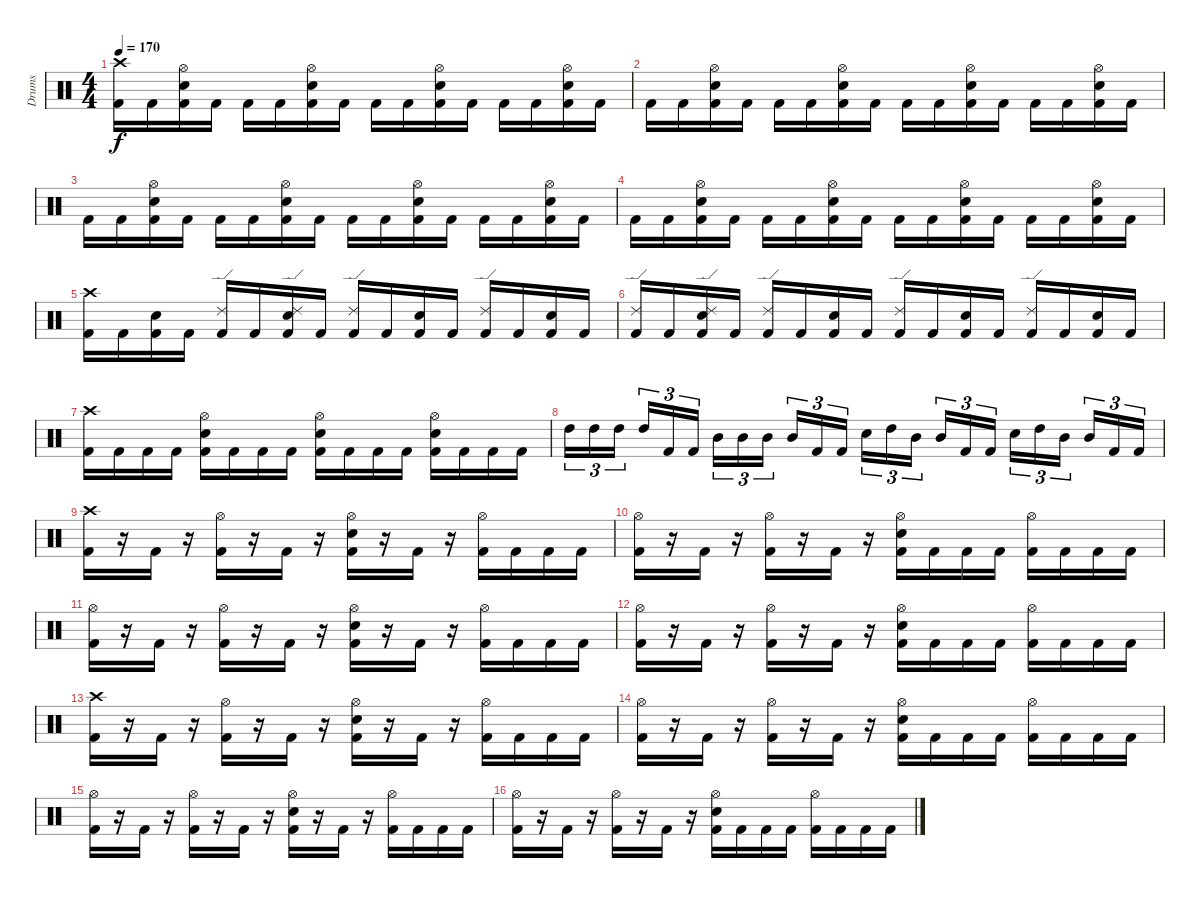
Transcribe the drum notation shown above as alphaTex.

\track ("Drums" "Drums") {instrument percussion}
\staff {score}
\articulation defaults
\ts (4 4)
\tempo 170
\clef neutral
\ks c
("Kick (hit) 2" "Crash high (hit)").16{dy f} "Kick (hit) 2".16 ("Kick (hit) 2" "Electric Snare (hit)" "Hi-Hat (open)").16 "Kick (hit) 2".16 "Kick (hit) 2".16 "Kick (hit) 2".16 ("Kick (hit) 2" "Electric Snare (hit)" "Hi-Hat (open)").16 "Kick (hit) 2".16 "Kick (hit) 2".16 "Kick (hit) 2".16 ("Kick (hit) 2" "Electric Snare (hit)" "Hi-Hat (open)").16 "Kick (hit) 2".16 "Kick (hit) 2".16 "Kick (hit) 2".16 ("Kick (hit) 2" "Electric Snare (hit)" "Hi-Hat (open)").16 "Kick (hit) 2".16 |
"Kick (hit) 2".16 "Kick (hit) 2".16 ("Kick (hit) 2" "Electric Snare (hit)" "Hi-Hat (open)").16 "Kick (hit) 2".16 "Kick (hit) 2".16 "Kick (hit) 2".16 ("Kick (hit) 2" "Electric Snare (hit)" "Hi-Hat (open)").16 "Kick (hit) 2".16 "Kick (hit) 2".16 "Kick (hit) 2".16 ("Kick (hit) 2" "Electric Snare (hit)" "Hi-Hat (open)").16 "Kick (hit) 2".16 "Kick (hit) 2".16 "Kick (hit) 2".16 ("Kick (hit) 2" "Electric Snare (hit)" "Hi-Hat (open)").16 "Kick (hit) 2".16 |
"Kick (hit) 2".16 "Kick (hit) 2".16 ("Kick (hit) 2" "Electric Snare (hit)" "Hi-Hat (open)").16 "Kick (hit) 2".16 "Kick (hit) 2".16 "Kick (hit) 2".16 ("Kick (hit) 2" "Electric Snare (hit)" "Hi-Hat (open)").16 "Kick (hit) 2".16 "Kick (hit) 2".16 "Kick (hit) 2".16 ("Kick (hit) 2" "Electric Snare (hit)" "Hi-Hat (open)").16 "Kick (hit) 2".16 "Kick (hit) 2".16 "Kick (hit) 2".16 ("Kick (hit) 2" "Electric Snare (hit)" "Hi-Hat (open)").16 "Kick (hit) 2".16 |
"Kick (hit) 2".16 "Kick (hit) 2".16 ("Kick (hit) 2" "Electric Snare (hit)" "Hi-Hat (open)").16 "Kick (hit) 2".16 "Kick (hit) 2".16 "Kick (hit) 2".16 ("Kick (hit) 2" "Electric Snare (hit)" "Hi-Hat (open)").16 "Kick (hit) 2".16 "Kick (hit) 2".16 "Kick (hit) 2".16 ("Kick (hit) 2" "Electric Snare (hit)" "Hi-Hat (open)").16 "Kick (hit) 2".16 "Kick (hit) 2".16 "Kick (hit) 2".16 ("Kick (hit) 2" "Electric Snare (hit)" "Hi-Hat (open)").16 "Kick (hit) 2".16 |
("Kick (hit) 2" "Crash high (hit)").16 "Kick (hit) 2".16 ("Kick (hit) 2" "Electric Snare (hit)").16 "Kick (hit) 2".16 ("Kick (hit) 2" "Ride (edge) 2").16 "Kick (hit) 2".16 ("Kick (hit) 2" "Electric Snare (hit)" "Ride (edge) 2").16 "Kick (hit) 2".16 ("Kick (hit) 2" "Ride (edge) 2").16 "Kick (hit) 2".16 ("Kick (hit) 2" "Electric Snare (hit)").16 "Kick (hit) 2".16 ("Kick (hit) 2" "Ride (edge) 2").16 "Kick (hit) 2".16 ("Kick (hit) 2" "Electric Snare (hit)").16 "Kick (hit) 2".16 |
("Kick (hit) 2" "Ride (edge) 2").16 "Kick (hit) 2".16 ("Kick (hit) 2" "Electric Snare (hit)" "Ride (edge) 2").16 "Kick (hit) 2".16 ("Kick (hit) 2" "Ride (edge) 2").16 "Kick (hit) 2".16 ("Kick (hit) 2" "Electric Snare (hit)").16 "Kick (hit) 2".16 ("Kick (hit) 2" "Ride (edge) 2").16 "Kick (hit) 2".16 ("Kick (hit) 2" "Electric Snare (hit)").16 "Kick (hit) 2".16 ("Kick (hit) 2" "Ride (edge) 2").16 "Kick (hit) 2".16 ("Kick (hit) 2" "Electric Snare (hit)").16 "Kick (hit) 2".16 |
("Kick (hit) 2" "Crash high (hit)").16 "Kick (hit) 2".16 "Kick (hit) 2".16 "Kick (hit) 2".16 ("Kick (hit) 2" "Electric Snare (hit)" "Hi-Hat (open)").16 "Kick (hit) 2".16 "Kick (hit) 2".16 "Kick (hit) 2".16 ("Kick (hit) 2" "Electric Snare (hit)" "Hi-Hat (open)").16 "Kick (hit) 2".16 "Kick (hit) 2".16 "Kick (hit) 2".16 ("Kick (hit) 2" "Electric Snare (hit)" "Hi-Hat (open)").16 "Kick (hit) 2".16 "Kick (hit) 2".16 "Kick (hit) 2".16 |
"High Tom (hit)".16{tu (3 2)} "High Tom (hit)".16{tu (3 2)} "High Tom (hit)".16{tu (3 2)} "High Tom (hit)".16{tu (3 2)} "Kick (hit) 2".16{tu (3 2)} "Kick (hit) 2".16{tu (3 2)} "Mid Tom (hit)".16{tu (3 2)} "Mid Tom (hit)".16{tu (3 2)} "Mid Tom (hit)".16{tu (3 2)} "Mid Tom (hit)".16{tu (3 2)} "Kick (hit) 2".16{tu (3 2)} "Kick (hit) 2".16{tu (3 2)} "Electric Snare (hit)".16{tu (3 2)} "High Tom (hit)".16{tu (3 2)} "Mid Tom (hit)".16{tu (3 2)} "Mid Tom (hit)".16{tu (3 2)} "Kick (hit) 2".16{tu (3 2)} "Kick (hit) 2".16{tu (3 2)} "Electric Snare (hit)".16{tu (3 2)} "High Tom (hit)".16{tu (3 2)} "Mid Tom (hit)".16{tu (3 2)} "Mid Tom (hit)".16{tu (3 2)} "Kick (hit) 2".16{tu (3 2)} "Kick (hit) 2".16{tu (3 2)} |
("Kick (hit) 2" "Crash high (hit)").16 r.16 "Kick (hit) 2".16 r.16 ("Kick (hit) 2" "Hi-Hat (open)").16 r.16 "Kick (hit) 2".16 r.16 ("Kick (hit) 2" "Electric Snare (hit)" "Hi-Hat (open)").16 r.16 "Kick (hit) 2".16 r.16 ("Kick (hit) 2" "Hi-Hat (open)").16 "Kick (hit) 2".16 "Kick (hit) 2".16 "Kick (hit) 2".16 |
("Kick (hit) 2" "Hi-Hat (open)").16 r.16 "Kick (hit) 2".16 r.16 ("Kick (hit) 2" "Hi-Hat (open)").16 r.16 "Kick (hit) 2".16 r.16 ("Kick (hit) 2" "Electric Snare (hit)" "Hi-Hat (open)").16 "Kick (hit) 2".16 "Kick (hit) 2".16 "Kick (hit) 2".16 ("Kick (hit) 2" "Hi-Hat (open)").16 "Kick (hit) 2".16 "Kick (hit) 2".16 "Kick (hit) 2".16 |
("Kick (hit) 2" "Hi-Hat (open)").16 r.16 "Kick (hit) 2".16 r.16 ("Kick (hit) 2" "Hi-Hat (open)").16 r.16 "Kick (hit) 2".16 r.16 ("Kick (hit) 2" "Electric Snare (hit)" "Hi-Hat (open)").16 r.16 "Kick (hit) 2".16 r.16 ("Kick (hit) 2" "Hi-Hat (open)").16 "Kick (hit) 2".16 "Kick (hit) 2".16 "Kick (hit) 2".16 |
("Kick (hit) 2" "Hi-Hat (open)").16 r.16 "Kick (hit) 2".16 r.16 ("Kick (hit) 2" "Hi-Hat (open)").16 r.16 "Kick (hit) 2".16 r.16 ("Kick (hit) 2" "Electric Snare (hit)" "Hi-Hat (open)").16 "Kick (hit) 2".16 "Kick (hit) 2".16 "Kick (hit) 2".16 ("Kick (hit) 2" "Hi-Hat (open)").16 "Kick (hit) 2".16 "Kick (hit) 2".16 "Kick (hit) 2".16 |
("Kick (hit) 2" "Crash high (hit)").16 r.16 "Kick (hit) 2".16 r.16 ("Kick (hit) 2" "Hi-Hat (open)").16 r.16 "Kick (hit) 2".16 r.16 ("Kick (hit) 2" "Electric Snare (hit)" "Hi-Hat (open)").16 r.16 "Kick (hit) 2".16 r.16 ("Kick (hit) 2" "Hi-Hat (open)").16 "Kick (hit) 2".16 "Kick (hit) 2".16 "Kick (hit) 2".16 |
("Kick (hit) 2" "Hi-Hat (open)").16 r.16 "Kick (hit) 2".16 r.16 ("Kick (hit) 2" "Hi-Hat (open)").16 r.16 "Kick (hit) 2".16 r.16 ("Kick (hit) 2" "Electric Snare (hit)" "Hi-Hat (open)").16 "Kick (hit) 2".16 "Kick (hit) 2".16 "Kick (hit) 2".16 ("Kick (hit) 2" "Hi-Hat (open)").16 "Kick (hit) 2".16 "Kick (hit) 2".16 "Kick (hit) 2".16 |
("Kick (hit) 2" "Hi-Hat (open)").16 r.16 "Kick (hit) 2".16 r.16 ("Kick (hit) 2" "Hi-Hat (open)").16 r.16 "Kick (hit) 2".16 r.16 ("Kick (hit) 2" "Electric Snare (hit)" "Hi-Hat (open)").16 r.16 "Kick (hit) 2".16 r.16 ("Kick (hit) 2" "Hi-Hat (open)").16 "Kick (hit) 2".16 "Kick (hit) 2".16 "Kick (hit) 2".16 |
("Kick (hit) 2" "Hi-Hat (open)").16 r.16 "Kick (hit) 2".16 r.16 ("Kick (hit) 2" "Hi-Hat (open)").16 r.16 "Kick (hit) 2".16 r.16 ("Kick (hit) 2" "Electric Snare (hit)" "Hi-Hat (open)").16 "Kick (hit) 2".16 "Kick (hit) 2".16 "Kick (hit) 2".16 ("Kick (hit) 2" "Hi-Hat (open)").16 "Kick (hit) 2".16 "Kick (hit) 2".16 "Kick (hit) 2".16
